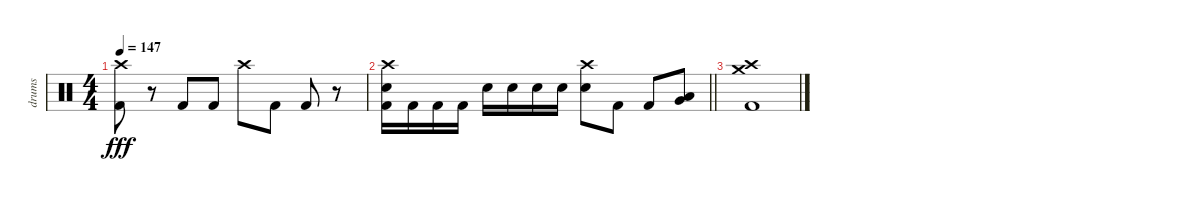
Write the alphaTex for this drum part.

\track ("drums" "drums") {instrument percussion}
\staff {score}
\articulation defaults
\ts (4 4)
\tempo 147
\clef neutral
\ks c
("Crash high (hit)" "Kick (hit) 2").8{dy fff} r.8 "Kick (hit) 2".8 "Kick (hit) 2".8 "Crash high (hit)".8 "Kick (hit) 2".8 "Kick (hit) 2".8 r.8 |
\barLineRight lightlight
("Crash high (hit)" "Electric Snare (hit)" "Kick (hit) 2").16 "Kick (hit) 2".16 "Kick (hit) 2".16 "Kick (hit) 2".16 "Electric Snare (hit)".16 "Electric Snare (hit)".16 "Electric Snare (hit)".16 "Electric Snare (hit)".16 ("Crash high (hit)" "Electric Snare (hit)").8 "Kick (hit) 2".8 "Kick (hit) 2".8 ("Very Low Tom (hit)" "Low Floor Tom (hit)").8 |
\section ("" "")
("Crash high (hit)" "Crash medium (hit)" "Kick (hit) 2").1
